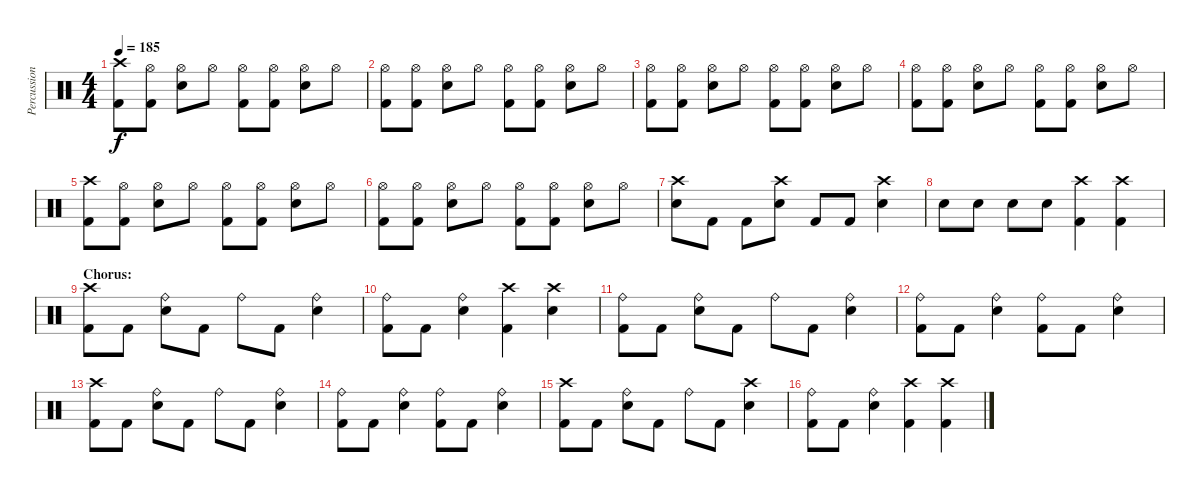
\track ("Percussion" "Percussion") {instrument percussion}
\staff {score}
\articulation defaults
\ts (4 4)
\tempo 185
\clef neutral
\ks c
("Crash high (hit)" "Kick (hit) 2").8{dy f} ("Hi-Hat (open)" "Kick (hit) 2").8 ("Hi-Hat (open)" "Snare (hit) 2").8 "Hi-Hat (open)".8 ("Hi-Hat (open)" "Kick (hit) 2").8 ("Hi-Hat (open)" "Kick (hit) 2").8 ("Hi-Hat (open)" "Snare (hit) 2").8 "Hi-Hat (open)".8 |
("Hi-Hat (open)" "Kick (hit) 2").8 ("Hi-Hat (open)" "Kick (hit) 2").8 ("Hi-Hat (open)" "Snare (hit) 2").8 "Hi-Hat (open)".8 ("Hi-Hat (open)" "Kick (hit) 2").8 ("Hi-Hat (open)" "Kick (hit) 2").8 ("Hi-Hat (open)" "Snare (hit) 2").8 "Hi-Hat (open)".8 |
("Hi-Hat (open)" "Kick (hit) 2").8 ("Hi-Hat (open)" "Kick (hit) 2").8 ("Hi-Hat (open)" "Snare (hit) 2").8 "Hi-Hat (open)".8 ("Hi-Hat (open)" "Kick (hit) 2").8 ("Hi-Hat (open)" "Kick (hit) 2").8 ("Hi-Hat (open)" "Snare (hit) 2").8 "Hi-Hat (open)".8 |
("Hi-Hat (open)" "Kick (hit) 2").8 ("Hi-Hat (open)" "Kick (hit) 2").8 ("Hi-Hat (open)" "Snare (hit) 2").8 "Hi-Hat (open)".8 ("Hi-Hat (open)" "Kick (hit) 2").8 ("Hi-Hat (open)" "Kick (hit) 2").8 ("Hi-Hat (open)" "Snare (hit) 2").8 "Hi-Hat (open)".8 |
("Crash high (hit)" "Kick (hit) 2").8 ("Hi-Hat (open)" "Kick (hit) 2").8 ("Hi-Hat (open)" "Snare (hit) 2").8 "Hi-Hat (open)".8 ("Hi-Hat (open)" "Kick (hit) 2").8 ("Hi-Hat (open)" "Kick (hit) 2").8 ("Hi-Hat (open)" "Snare (hit) 2").8 "Hi-Hat (open)".8 |
("Hi-Hat (open)" "Kick (hit) 2").8 ("Hi-Hat (open)" "Kick (hit) 2").8 ("Hi-Hat (open)" "Snare (hit) 2").8 "Hi-Hat (open)".8 ("Hi-Hat (open)" "Kick (hit) 2").8 ("Hi-Hat (open)" "Kick (hit) 2").8 ("Hi-Hat (open)" "Snare (hit) 2").8 "Hi-Hat (open)".8 |
("Crash high (hit)" "Snare (hit) 2").8 "Kick (hit) 2".8 "Kick (hit) 2".8 ("Crash high (hit)" "Snare (hit) 2").8 "Kick (hit) 2".8 "Kick (hit) 2".8 ("Crash high (hit)" "Snare (hit) 2").4 |
"Snare (hit) 2".8 "Snare (hit) 2".8 "Snare (hit) 2".8 "Snare (hit) 2".8 ("Crash high (hit)" "Kick (hit) 2").4 ("Crash high (hit)" "Kick (hit) 2").4 |
\section ("" "Chorus:")
("Crash high (hit)" "Kick (hit) 2").8 "Kick (hit) 2".8 ("Ride (bell)" "Snare (hit) 2").8 "Kick (hit) 2".8 "Ride (bell)".8 "Kick (hit) 2".8 ("Ride (bell)" "Snare (hit) 2").4 |
("Ride (bell)" "Kick (hit) 2").8 "Kick (hit) 2".8 ("Ride (bell)" "Snare (hit) 2").4 ("Crash high (hit)" "Kick (hit) 2").4 ("Crash high (hit)" "Snare (hit) 2").4 |
("Ride (bell)" "Kick (hit) 2").8 "Kick (hit) 2".8 ("Ride (bell)" "Snare (hit) 2").8 "Kick (hit) 2".8 "Ride (bell)".8 "Kick (hit) 2".8 ("Ride (bell)" "Snare (hit) 2").4 |
("Ride (bell)" "Kick (hit) 2").8 "Kick (hit) 2".8 ("Ride (bell)" "Snare (hit) 2").4 ("Ride (bell)" "Kick (hit) 2").8 "Kick (hit) 2".8 ("Ride (bell)" "Snare (hit) 2").4 |
("Crash high (hit)" "Kick (hit) 2").8 "Kick (hit) 2".8 ("Ride (bell)" "Snare (hit) 2").8 "Kick (hit) 2".8 "Ride (bell)".8 "Kick (hit) 2".8 ("Ride (bell)" "Snare (hit) 2").4 |
("Ride (bell)" "Kick (hit) 2").8 "Kick (hit) 2".8 ("Ride (bell)" "Snare (hit) 2").4 ("Ride (bell)" "Kick (hit) 2").8 "Kick (hit) 2".8 ("Ride (bell)" "Snare (hit) 2").4 |
("Crash high (hit)" "Kick (hit) 2").8 "Kick (hit) 2".8 ("Ride (bell)" "Snare (hit) 2").8 "Kick (hit) 2".8 "Ride (bell)".8 "Kick (hit) 2".8 ("Crash high (hit)" "Snare (hit) 2").4 |
("Ride (bell)" "Kick (hit) 2").8 "Kick (hit) 2".8 ("Ride (bell)" "Snare (hit) 2").4 ("Crash high (hit)" "Kick (hit) 2").4 ("Crash high (hit)" "Kick (hit) 2").4
